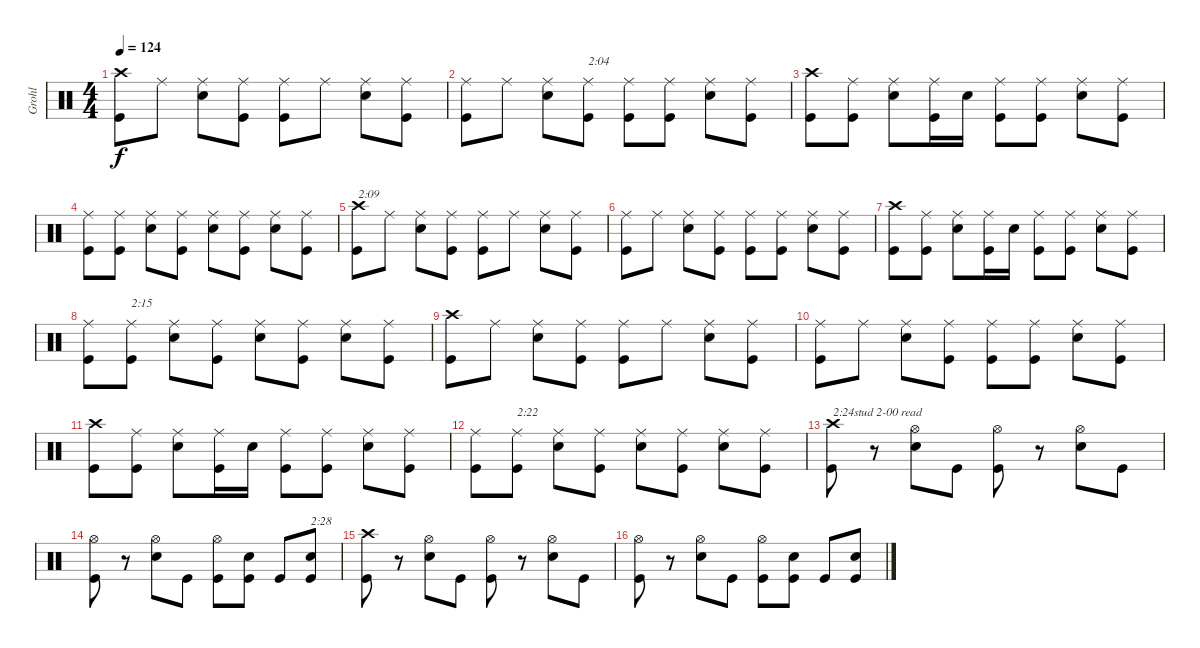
\track ("Grohl" "Grohl") {instrument percussion}
\staff {score}
\articulation defaults
\ts (4 4)
\tempo 124
\clef neutral
\ks c
("Crash high (hit)" "Kick (hit)").8{dy f} "Ride (middle)".8 ("Ride (middle)" "Snare (hit) 2").8 ("Ride (middle)" "Kick (hit)").8 ("Ride (middle)" "Kick (hit)").8 "Ride (middle)".8 ("Ride (middle)" "Snare (hit) 2").8 ("Ride (middle)" "Kick (hit)").8 |
("Ride (middle)" "Kick (hit)").8 "Ride (middle)".8 ("Ride (middle)" "Snare (hit) 2").8 ("Ride (middle)" "Kick (hit)").8{txt "2:04"} ("Ride (middle)" "Kick (hit)").8 ("Ride (middle)" "Kick (hit)").8 ("Ride (middle)" "Snare (hit) 2").8 ("Ride (middle)" "Kick (hit)").8 |
("Crash high (hit)" "Kick (hit)").8 ("Ride (middle)" "Kick (hit)").8 ("Ride (middle)" "Snare (hit) 2").8 ("Ride (middle)" "Kick (hit)").16 "Snare (hit) 2".16 ("Ride (middle)" "Kick (hit)").8 ("Ride (middle)" "Kick (hit)").8 ("Ride (middle)" "Snare (hit) 2").8 ("Ride (middle)" "Kick (hit)").8 |
("Ride (middle)" "Kick (hit)").8 ("Ride (middle)" "Kick (hit)").8 ("Ride (middle)" "Snare (hit) 2").8 ("Ride (middle)" "Kick (hit)").8 ("Ride (middle)" "Snare (hit) 2").8 ("Ride (middle)" "Kick (hit)").8 ("Ride (middle)" "Snare (hit) 2").8 ("Ride (middle)" "Kick (hit)").8 |
("Crash high (hit)" "Kick (hit)").8{txt "2:09"} "Ride (middle)".8 ("Ride (middle)" "Snare (hit) 2").8 ("Ride (middle)" "Kick (hit)").8 ("Ride (middle)" "Kick (hit)").8 "Ride (middle)".8 ("Ride (middle)" "Snare (hit) 2").8 ("Ride (middle)" "Kick (hit)").8 |
("Ride (middle)" "Kick (hit)").8 "Ride (middle)".8 ("Ride (middle)" "Snare (hit) 2").8 ("Ride (middle)" "Kick (hit)").8 ("Ride (middle)" "Kick (hit)").8 ("Ride (middle)" "Kick (hit)").8 ("Ride (middle)" "Snare (hit) 2").8 ("Ride (middle)" "Kick (hit)").8 |
("Crash high (hit)" "Kick (hit)").8 ("Ride (middle)" "Kick (hit)").8 ("Ride (middle)" "Snare (hit) 2").8 ("Ride (middle)" "Kick (hit)").16 "Snare (hit) 2".16 ("Ride (middle)" "Kick (hit)").8 ("Ride (middle)" "Kick (hit)").8 ("Ride (middle)" "Snare (hit) 2").8 ("Ride (middle)" "Kick (hit)").8 |
("Ride (middle)" "Kick (hit)").8 ("Ride (middle)" "Kick (hit)").8{txt "2:15"} ("Ride (middle)" "Snare (hit) 2").8 ("Ride (middle)" "Kick (hit)").8 ("Ride (middle)" "Snare (hit) 2").8 ("Ride (middle)" "Kick (hit)").8 ("Ride (middle)" "Snare (hit) 2").8 ("Ride (middle)" "Kick (hit)").8 |
("Crash high (hit)" "Kick (hit)").8 "Ride (middle)".8 ("Ride (middle)" "Snare (hit) 2").8 ("Ride (middle)" "Kick (hit)").8 ("Ride (middle)" "Kick (hit)").8 "Ride (middle)".8 ("Ride (middle)" "Snare (hit) 2").8 ("Ride (middle)" "Kick (hit)").8 |
("Ride (middle)" "Kick (hit)").8 "Ride (middle)".8 ("Ride (middle)" "Snare (hit) 2").8 ("Ride (middle)" "Kick (hit)").8 ("Ride (middle)" "Kick (hit)").8 ("Ride (middle)" "Kick (hit)").8 ("Ride (middle)" "Snare (hit) 2").8 ("Ride (middle)" "Kick (hit)").8 |
("Crash high (hit)" "Kick (hit)").8 ("Ride (middle)" "Kick (hit)").8 ("Ride (middle)" "Snare (hit) 2").8 ("Ride (middle)" "Kick (hit)").16 "Snare (hit) 2".16 ("Ride (middle)" "Kick (hit)").8 ("Ride (middle)" "Kick (hit)").8 ("Ride (middle)" "Snare (hit) 2").8 ("Ride (middle)" "Kick (hit)").8 |
("Ride (middle)" "Kick (hit)").8 ("Ride (middle)" "Kick (hit)").8{txt "2:22"} ("Ride (middle)" "Snare (hit) 2").8 ("Ride (middle)" "Kick (hit)").8 ("Ride (middle)" "Snare (hit) 2").8 ("Ride (middle)" "Kick (hit)").8 ("Ride (middle)" "Snare (hit) 2").8 ("Ride (middle)" "Kick (hit)").8 |
("Crash high (hit)" "Kick (hit)").8{txt "2:24stud 2-00 read"} r.8 ("Hi-Hat (open)" "Snare (hit) 2").8 "Kick (hit)".8 ("Hi-Hat (open)" "Kick (hit)").8 r.8 ("Hi-Hat (open)" "Snare (hit) 2").8 "Kick (hit)".8 |
("Hi-Hat (open)" "Kick (hit)").8 r.8 ("Hi-Hat (open)" "Snare (hit) 2").8 "Kick (hit)".8 ("Hi-Hat (open)" "Kick (hit)").8 ("Snare (hit) 2" "Kick (hit)").8 "Kick (hit)".8 ("Snare (hit) 2" "Kick (hit)").8{txt "2:28"} |
("Crash high (hit)" "Kick (hit)").8 r.8 ("Hi-Hat (open)" "Snare (hit) 2").8 "Kick (hit)".8 ("Hi-Hat (open)" "Kick (hit)").8 r.8 ("Hi-Hat (open)" "Snare (hit) 2").8 "Kick (hit)".8 |
("Hi-Hat (open)" "Kick (hit)").8 r.8 ("Hi-Hat (open)" "Snare (hit) 2").8 "Kick (hit)".8 ("Hi-Hat (open)" "Kick (hit)").8 ("Snare (hit) 2" "Kick (hit)").8 "Kick (hit)".8 ("Snare (hit) 2" "Kick (hit)").8
